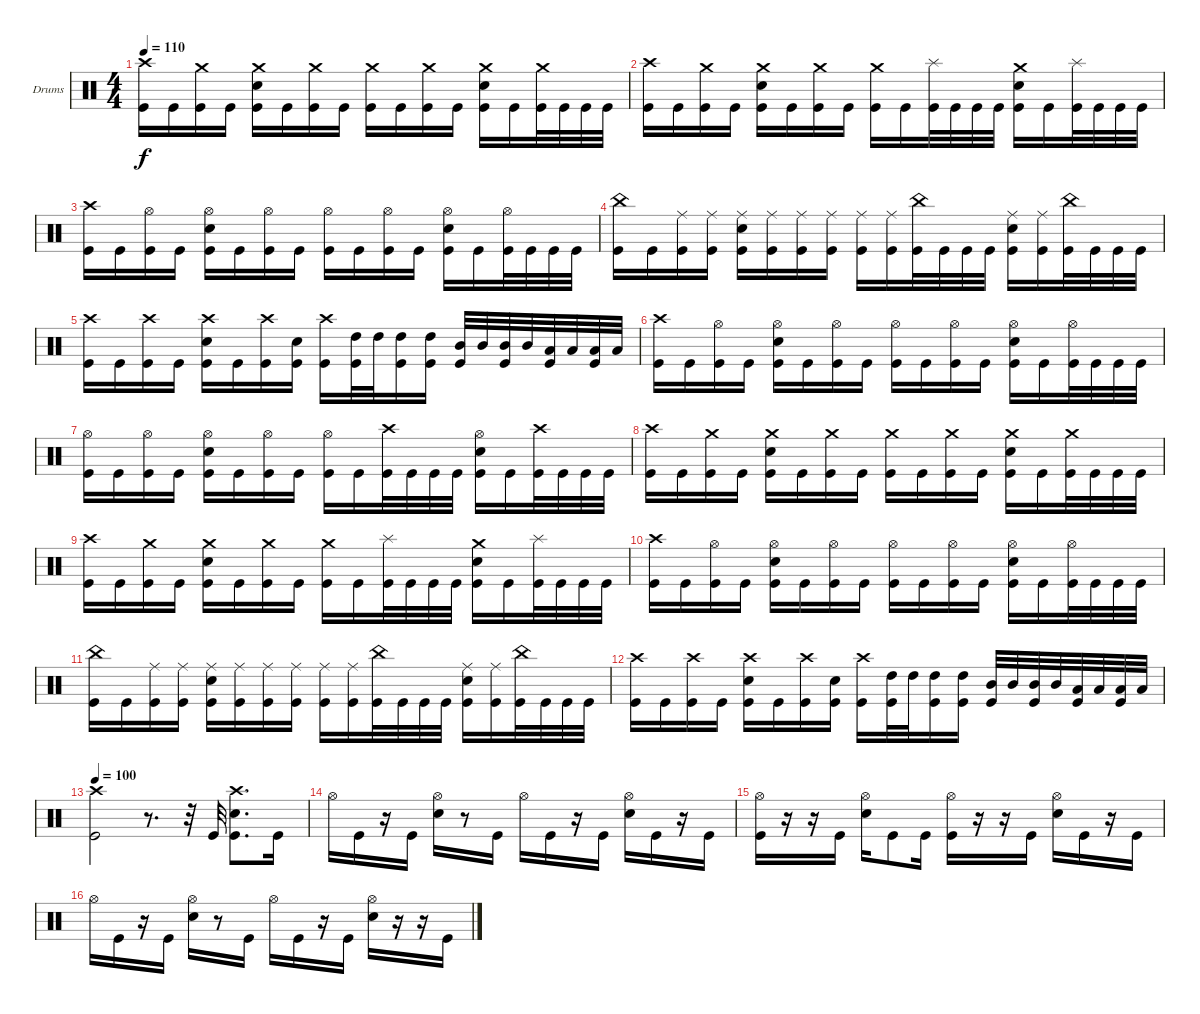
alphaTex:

\defaultSystemsLayout 4
\bracketExtendMode groupsimilarinstruments
\firstSystemTrackNameOrientation horizontal
\otherSystemsTrackNameOrientation horizontal
\track ("Drumkit" "Drums") {instrument percussion}
\staff {score}
\articulation defaults
\ts (4 4)
\tempo 110
\clef neutral
\scale
0.487719
\ks c
("Crash high (hit)" "Kick (hit)").16{dy f} "Kick (hit)".16 ("Crash medium (hit)" "Kick (hit)").16 "Kick (hit)".16 ("Crash medium (hit)" "Snare (hit) 2" "Kick (hit)").16 "Kick (hit)".16 ("Crash medium (hit)" "Kick (hit)").16 "Kick (hit)".16 ("Crash medium (hit)" "Kick (hit)").16 "Kick (hit)".16 ("Crash medium (hit)" "Kick (hit)").16 "Kick (hit)".16 ("Crash medium (hit)" "Snare (hit) 2" "Kick (hit)").16 "Kick (hit)".16 ("Crash medium (hit)" "Kick (hit)").32 "Kick (hit)".32 "Kick (hit)".32 "Kick (hit)".32 |
\scale
0.512281 ("Crash high (hit)" "Kick (hit)").16 "Kick (hit)".16 ("Crash medium (hit)" "Kick (hit)").16 "Kick (hit)".16 ("Crash medium (hit)" "Snare (hit) 2" "Kick (hit)").16 "Kick (hit)".16 ("Crash medium (hit)" "Kick (hit)").16 "Kick (hit)".16 ("Crash medium (hit)" "Kick (hit)").16 "Kick (hit)".16 ("Splash (hit)" "Kick (hit)").32 "Kick (hit)".32 "Kick (hit)".32 "Kick (hit)".32 ("Crash medium (hit)" "Snare (hit) 2" "Kick (hit)").16 "Kick (hit)".16 ("Splash (hit)" "Kick (hit)").32 "Kick (hit)".32 "Kick (hit)".32 "Kick (hit)".32 |
\scale
0.487719 ("Crash high (hit)" "Kick (hit)").16 "Kick (hit)".16 ("Hi-Hat (open)" "Kick (hit)").16 "Kick (hit)".16 ("Hi-Hat (open)" "Snare (hit) 2" "Kick (hit)").16 "Kick (hit)".16 ("Hi-Hat (open)" "Kick (hit)").16 "Kick (hit)".16 ("Hi-Hat (open)" "Kick (hit)").16 "Kick (hit)".16 ("Hi-Hat (open)" "Kick (hit)").16 "Kick (hit)".16 ("Hi-Hat (open)" "Snare (hit) 2" "Kick (hit)").16 "Kick (hit)".16 ("Hi-Hat (open)" "Kick (hit)").32 "Kick (hit)".32 "Kick (hit)".32 "Kick (hit)".32 |
\scale
0.512281 ("China (hit)" "Kick (hit)").16 "Kick (hit)".16 ("Ride (middle)" "Kick (hit)").16 ("Ride (middle)" "Kick (hit)").16 ("Ride (middle)" "Snare (hit) 2" "Kick (hit)").16 ("Ride (middle)" "Kick (hit)").16 ("Ride (middle)" "Kick (hit)").16 ("Ride (middle)" "Kick (hit)").16 ("Ride (middle)" "Kick (hit)").16 ("Ride (middle)" "Kick (hit)").16 ("China (hit)" "Kick (hit)").32 "Kick (hit)".32 "Kick (hit)".32 "Kick (hit)".32 ("Ride (middle)" "Snare (hit) 2" "Kick (hit)").16 ("Ride (middle)" "Kick (hit)").16 ("China (hit)" "Kick (hit)").32 "Kick (hit)".32 "Kick (hit)".32 "Kick (hit)".32 |
\scale
0.518198 ("Crash high (hit)" "Kick (hit)").16 "Kick (hit)".16 ("Crash high (hit)" "Kick (hit)").16 "Kick (hit)".16 ("Crash high (hit)" "Snare (hit) 2" "Kick (hit)").16 "Kick (hit)".16 ("Crash high (hit)" "Kick (hit)").16 ("Snare (hit) 2" "Kick (hit)").16 ("Crash high (hit)" "Kick (hit)").16 ("High Tom (hit)" "Kick (hit)").32 "High Tom (hit)".32 ("High Tom (hit)" "Kick (hit)").16 ("High Tom (hit)" "Kick (hit)").16 ("Mid Tom (hit)" "Kick (hit)").32 "Mid Tom (hit)".32 ("Mid Tom (hit)" "Kick (hit)").32 "Mid Tom (hit)".32 ("Low Tom (hit)" "Kick (hit)").32 "Low Tom (hit)".32 ("Low Tom (hit)" "Kick (hit)").32 "Low Tom (hit)".32 |
\scale
0.481802 ("Crash high (hit)" "Kick (hit)").16 "Kick (hit)".16 ("Hi-Hat (open)" "Kick (hit)").16 "Kick (hit)".16 ("Hi-Hat (open)" "Snare (hit) 2" "Kick (hit)").16 "Kick (hit)".16 ("Hi-Hat (open)" "Kick (hit)").16 "Kick (hit)".16 ("Hi-Hat (open)" "Kick (hit)").16 "Kick (hit)".16 ("Hi-Hat (open)" "Kick (hit)").16 "Kick (hit)".16 ("Hi-Hat (open)" "Snare (hit) 2" "Kick (hit)").16 "Kick (hit)".16 ("Hi-Hat (open)" "Kick (hit)").32 "Kick (hit)".32 "Kick (hit)".32 "Kick (hit)".32 |
\scale
0.512281 ("Hi-Hat (open)" "Kick (hit)").16 "Kick (hit)".16 ("Hi-Hat (open)" "Kick (hit)").16 "Kick (hit)".16 ("Hi-Hat (open)" "Snare (hit) 2" "Kick (hit)").16 "Kick (hit)".16 ("Hi-Hat (open)" "Kick (hit)").16 "Kick (hit)".16 ("Hi-Hat (open)" "Kick (hit)").16 "Kick (hit)".16 ("Crash high (hit)" "Kick (hit)").32 "Kick (hit)".32 "Kick (hit)".32 "Kick (hit)".32 ("Hi-Hat (open)" "Snare (hit) 2" "Kick (hit)").16 "Kick (hit)".16 ("Crash high (hit)" "Kick (hit)").32 "Kick (hit)".32 "Kick (hit)".32 "Kick (hit)".32 |
\scale
0.487719 ("Crash high (hit)" "Kick (hit)").16 "Kick (hit)".16 ("Crash medium (hit)" "Kick (hit)").16 "Kick (hit)".16 ("Crash medium (hit)" "Snare (hit) 2" "Kick (hit)").16 "Kick (hit)".16 ("Crash medium (hit)" "Kick (hit)").16 "Kick (hit)".16 ("Crash medium (hit)" "Kick (hit)").16 "Kick (hit)".16 ("Crash medium (hit)" "Kick (hit)").16 "Kick (hit)".16 ("Crash medium (hit)" "Snare (hit) 2" "Kick (hit)").16 "Kick (hit)".16 ("Crash medium (hit)" "Kick (hit)").32 "Kick (hit)".32 "Kick (hit)".32 "Kick (hit)".32 |
\scale
0.512281 ("Crash high (hit)" "Kick (hit)").16 "Kick (hit)".16 ("Crash medium (hit)" "Kick (hit)").16 "Kick (hit)".16 ("Crash medium (hit)" "Snare (hit) 2" "Kick (hit)").16 "Kick (hit)".16 ("Crash medium (hit)" "Kick (hit)").16 "Kick (hit)".16 ("Crash medium (hit)" "Kick (hit)").16 "Kick (hit)".16 ("Splash (hit)" "Kick (hit)").32 "Kick (hit)".32 "Kick (hit)".32 "Kick (hit)".32 ("Crash medium (hit)" "Snare (hit) 2" "Kick (hit)").16 "Kick (hit)".16 ("Splash (hit)" "Kick (hit)").32 "Kick (hit)".32 "Kick (hit)".32 "Kick (hit)".32 |
\scale
0.487719 ("Crash high (hit)" "Kick (hit)").16 "Kick (hit)".16 ("Hi-Hat (open)" "Kick (hit)").16 "Kick (hit)".16 ("Hi-Hat (open)" "Snare (hit) 2" "Kick (hit)").16 "Kick (hit)".16 ("Hi-Hat (open)" "Kick (hit)").16 "Kick (hit)".16 ("Hi-Hat (open)" "Kick (hit)").16 "Kick (hit)".16 ("Hi-Hat (open)" "Kick (hit)").16 "Kick (hit)".16 ("Hi-Hat (open)" "Snare (hit) 2" "Kick (hit)").16 "Kick (hit)".16 ("Hi-Hat (open)" "Kick (hit)").32 "Kick (hit)".32 "Kick (hit)".32 "Kick (hit)".32 |
\scale
0.494078 ("China (hit)" "Kick (hit)").16 "Kick (hit)".16 ("Ride (middle)" "Kick (hit)").16 ("Ride (middle)" "Kick (hit)").16 ("Ride (middle)" "Snare (hit) 2" "Kick (hit)").16 ("Ride (middle)" "Kick (hit)").16 ("Ride (middle)" "Kick (hit)").16 ("Ride (middle)" "Kick (hit)").16 ("Ride (middle)" "Kick (hit)").16 ("Ride (middle)" "Kick (hit)").16 ("China (hit)" "Kick (hit)").32 "Kick (hit)".32 "Kick (hit)".32 "Kick (hit)".32 ("Ride (middle)" "Snare (hit) 2" "Kick (hit)").16 ("Ride (middle)" "Kick (hit)").16 ("China (hit)" "Kick (hit)").32 "Kick (hit)".32 "Kick (hit)".32 "Kick (hit)".32 |
\scale
0.505922 ("Crash high (hit)" "Kick (hit)").16 "Kick (hit)".16 ("Crash high (hit)" "Kick (hit)").16 "Kick (hit)".16 ("Crash high (hit)" "Snare (hit) 2" "Kick (hit)").16 "Kick (hit)".16 ("Crash high (hit)" "Kick (hit)").16 ("Snare (hit) 2" "Kick (hit)").16 ("Crash high (hit)" "Kick (hit)").16 ("High Tom (hit)" "Kick (hit)").32 "High Tom (hit)".32 ("High Tom (hit)" "Kick (hit)").16 ("High Tom (hit)" "Kick (hit)").16 ("Mid Tom (hit)" "Kick (hit)").32 "Mid Tom (hit)".32 ("Mid Tom (hit)" "Kick (hit)").32 "Mid Tom (hit)".32 ("Low Tom (hit)" "Kick (hit)").32 "Low Tom (hit)".32 ("Low Tom (hit)" "Kick (hit)").32 "Low Tom (hit)".32 |
\tempo 100
\scale
0.445476 ("Crash high (hit)" "Kick (hit)").2 r.8{d} r.32 "Kick (hit)".32 ("Crash high (hit)" "Snare (hit) 2" "Kick (hit)").8{d} "Kick (hit)".16 |
\scale
0.554524 "Hi-Hat (open)".16 "Kick (hit)".16 r.16 "Kick (hit)".16 ("Hi-Hat (open)" "Snare (hit) 2").16 r.8 "Kick (hit)".16 "Hi-Hat (open)".16 "Kick (hit)".16 r.16 "Kick (hit)".16 ("Hi-Hat (open)" "Snare (hit) 2").16 "Kick (hit)".16 r.16 "Kick (hit)".16 |
\scale
0.5 ("Hi-Hat (open)" "Kick (hit)").16 r.16 r.16 "Kick (hit)".16 ("Hi-Hat (open)" "Snare (hit) 2").16 "Kick (hit)".8 "Kick (hit)".16 ("Hi-Hat (open)" "Kick (hit)").16 r.16 r.16 "Kick (hit)".16 ("Hi-Hat (open)" "Snare (hit) 2").16 "Kick (hit)".16 r.16 "Kick (hit)".16 |
\scale
0.5 "Hi-Hat (open)".16 "Kick (hit)".16 r.16 "Kick (hit)".16 ("Hi-Hat (open)" "Snare (hit) 2").16 r.8 "Kick (hit)".16 "Hi-Hat (open)".16 "Kick (hit)".16 r.16 "Kick (hit)".16 ("Hi-Hat (open)" "Snare (hit) 2").16 r.16 r.16 "Kick (hit)".16
